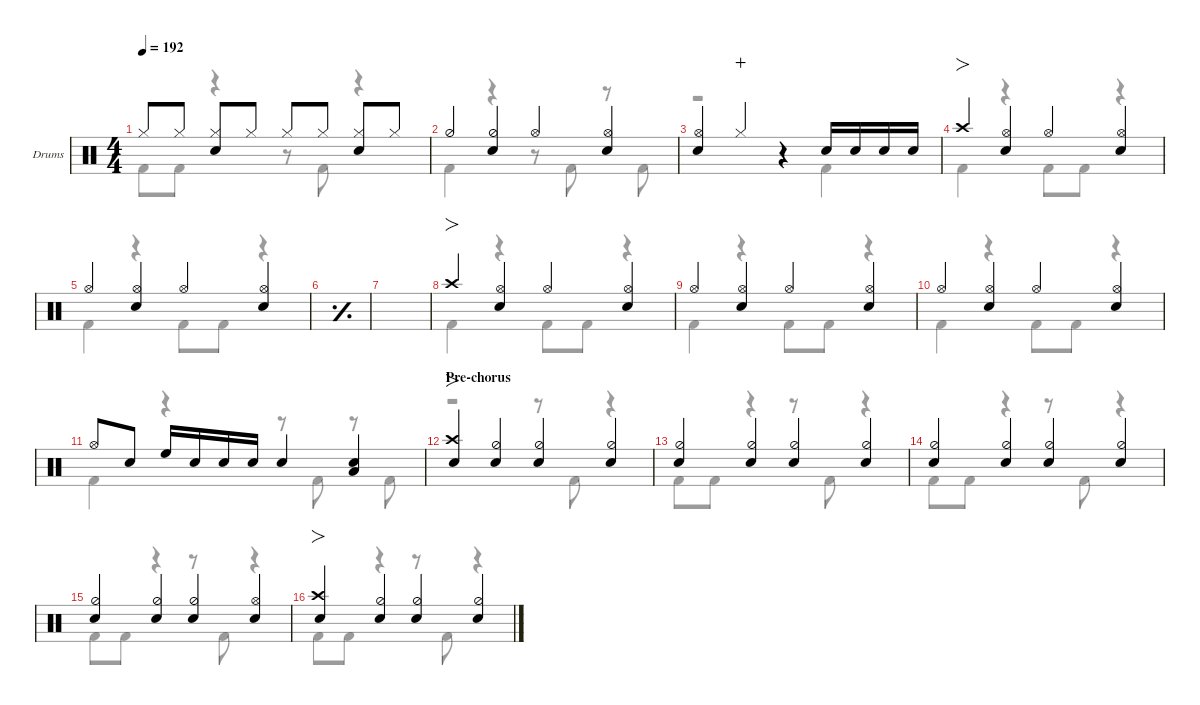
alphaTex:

\defaultSystemsLayout 4
\hideDynamics
\bracketExtendMode nobrackets
\firstSystemTrackNameOrientation horizontal
\track ("Drums" "Drums") {defaultSystemsLayout 4 instrument percussion}
\staff {score}
\articulation defaults
\voice
\ts (4 4)
\tempo 192
\clef neutral
\scale
0.244461
\ks c "Hi-Hat (closed)".8{dy f beam Up} "Hi-Hat (closed)".8{dy mf beam Up}
("Hi-Hat (closed)" "Snare (hit) 2").8{dy f beam Up} "Hi-Hat (closed)".8{dy mf beam Up} "Hi-Hat (closed)".8{dy f beam Up} "Hi-Hat (closed)".8{dy mf beam Up} ("Hi-Hat (closed)" "Snare (hit) 2").8{dy f beam Up} "Hi-Hat (closed)".8{dy mf beam Up} |
\scale
0.24446 "Hi-Hat (half)".4{dy f beam Up} ("Hi-Hat (half)" "Snare (hit) 2").4{beam Up} "Hi-Hat (open)".4{beam Up} ("Hi-Hat (open)" "Snare (hit) 2").4{beam Up} |
\scale
0.244461 ("Hi-Hat (open)" "Snare (hit) 2").4{beam Up} "Hi-Hat (closed)".4{dy mp wahc beam Up} r.4{beam Up} "Snare (hit) 2".16{dy f beam Up} "Snare (hit) 2".16{dy mf beam Up} "Snare (hit) 2".16{dy f beam Up} "Snare (hit) 2".16{dy mf beam Up} |
\scale
0.266618 "Crash high (hit)".4{fo dy f beam Up} ("Hi-Hat (open)" "Snare (hit) 2").4{beam Up} "Hi-Hat (open)".4{beam Up} ("Hi-Hat (open)" "Snare (hit) 2").4{beam Up} |
\scale
0.244461 "Hi-Hat (open)".4{beam Up} ("Hi-Hat (open)" "Snare (hit) 2").4{beam Up} "Hi-Hat (open)".4{beam Up} ("Hi-Hat (open)" "Snare (hit) 2").4{beam Up} |
\simile simple
\scale
0.24446 |
\scale
0.244461 |
\simile none
\scale
0.266618 "Crash high (hit)".4{fo beam Up} ("Hi-Hat (open)" "Snare (hit) 2").4{beam Up} "Hi-Hat (open)".4{beam Up} ("Hi-Hat (open)" "Snare (hit) 2").4{beam Up} |
\scale
0.244461 "Hi-Hat (open)".4{beam Up} ("Hi-Hat (open)" "Snare (hit) 2").4{beam Up} "Hi-Hat (open)".4{beam Up} ("Hi-Hat (open)" "Snare (hit) 2").4{beam Up} |
\scale
0.24446 "Hi-Hat (open)".4{beam Up} ("Hi-Hat (open)" "Snare (hit) 2").4{beam Up} "Hi-Hat (open)".4{beam Up} ("Hi-Hat (open)" "Snare (hit) 2").4{beam Up} |
\scale
0.244461 "Hi-Hat (open)".8{beam Up} "Snare (hit) 2".8{beam Up beam split} "High Floor Tom (hit)".16{beam Up} "Snare (hit) 2".16{dy mf beam Up} "Snare (hit) 2".16{dy f beam Up} "Snare (hit) 2".16{dy mf beam Up} "Snare (hit) 2".4{dy f beam Up} ("Snare (hit) 2" "Low Tom (hit)").4{beam Up} |
\section ("" "Pre-chorus")
\scale
0.266618 ("Snare (hit) 2" "Crash high (hit)").4{fo beam Up} ("Hi-Hat (half)" "Snare (hit) 2").4{beam Up} ("Hi-Hat (half)" "Snare (hit) 2").4{beam Up} ("Hi-Hat (half)" "Snare (hit) 2").4{beam Up} |
\scale
0.244461 ("Hi-Hat (half)" "Snare (hit) 2").4{beam Up} ("Hi-Hat (half)" "Snare (hit) 2").4{beam Up} ("Hi-Hat (half)" "Snare (hit) 2").4{beam Up} ("Hi-Hat (half)" "Snare (hit) 2").4{beam Up} |
\scale
0.24446 ("Hi-Hat (half)" "Snare (hit) 2").4{beam Up} ("Hi-Hat (half)" "Snare (hit) 2").4{beam Up} ("Hi-Hat (half)" "Snare (hit) 2").4{beam Up} ("Hi-Hat (half)" "Snare (hit) 2").4{beam Up} |
\scale
0.244461 ("Hi-Hat (half)" "Snare (hit) 2").4{beam Up} ("Hi-Hat (half)" "Snare (hit) 2").4{beam Up} ("Hi-Hat (half)" "Snare (hit) 2").4{beam Up} ("Hi-Hat (open)" "Snare (hit) 2").4{beam Up} |
\scale
0.266618 ("Snare (hit) 2" "Crash high (hit)").4{fo beam Up} ("Hi-Hat (half)" "Snare (hit) 2").4{beam Up} ("Hi-Hat (half)" "Snare (hit) 2").4{beam Up} ("Hi-Hat (half)" "Snare (hit) 2").4{beam Up}
\voice
\clef neutral
\ottava regular
\simile none
\scale
0.244461
\ks c "Kick (hit) 2".8{dy f beam Down} "Kick (hit) 2".8{beam Down}
r.4{beam Down} r.8{beam Down} "Kick (hit) 2".8{beam Down} r.4{beam Down} |
\scale
0.24446 "Kick (hit) 2".4{beam Down} r.4{beam Down} r.8{beam Down} "Kick (hit) 2".8{beam Down} r.8{beam Down} "Kick (hit) 2".8{beam Down} |
\scale
0.244461 r.2{beam Down} r.4{beam Down} "Kick (hit) 2".4{beam Down} |
\scale
0.266618 "Kick (hit) 2".4{beam Down} r.4{beam Down} "Kick (hit) 2".8{beam Down} "Kick (hit) 2".8{beam Down} r.4{beam Down} |
\scale
0.244461 "Kick (hit) 2".4{beam Down} r.4{beam Down} "Kick (hit) 2".8{beam Down} "Kick (hit) 2".8{beam Down} r.4{beam Down} |
\simile simple
\scale
0.24446 |
\scale
0.244461 |
\simile none
\scale
0.266618 "Kick (hit) 2".4{beam Down} r.4{beam Down} "Kick (hit) 2".8{beam Down} "Kick (hit) 2".8{beam Down} r.4{beam Down} |
\scale
0.244461 "Kick (hit) 2".4{beam Down} r.4{beam Down} "Kick (hit) 2".8{beam Down} "Kick (hit) 2".8{beam Down} r.4{beam Down} |
\scale
0.24446 "Kick (hit) 2".4{beam Down} r.4{beam Down} "Kick (hit) 2".8{beam Down} "Kick (hit) 2".8{beam Down} r.4{beam Down} |
\scale
0.244461 "Kick (hit) 2".4{beam Down} r.4{beam Down} r.8{beam Down} "Kick (hit) 2".8{beam Down} r.8{beam Down} "Kick (hit) 2".8{beam Down} |
\scale
0.266618 r.2{beam Down} r.8{beam Down} "Kick (hit) 2".8{beam Down} r.4{beam Down} |
\scale
0.244461 "Kick (hit) 2".8{beam Down} "Kick (hit) 2".8{beam Down} r.4{beam Down} r.8{beam Down} "Kick (hit) 2".8{beam Down} r.4{beam Down} |
\scale
0.24446 "Kick (hit) 2".8{beam Down} "Kick (hit) 2".8{beam Down} r.4{beam Down} r.8{beam Down} "Kick (hit) 2".8{beam Down} r.4{beam Down} |
\scale
0.244461 "Kick (hit) 2".8{beam Down} "Kick (hit) 2".8{beam Down} r.4{beam Down} r.8{beam Down} "Kick (hit) 2".8{beam Down} r.4{beam Down} |
\scale
0.266618 "Kick (hit) 2".8{beam Down} "Kick (hit) 2".8{beam Down} r.4{beam Down} r.8{beam Down} "Kick (hit) 2".8{beam Down} r.4{beam Down}
